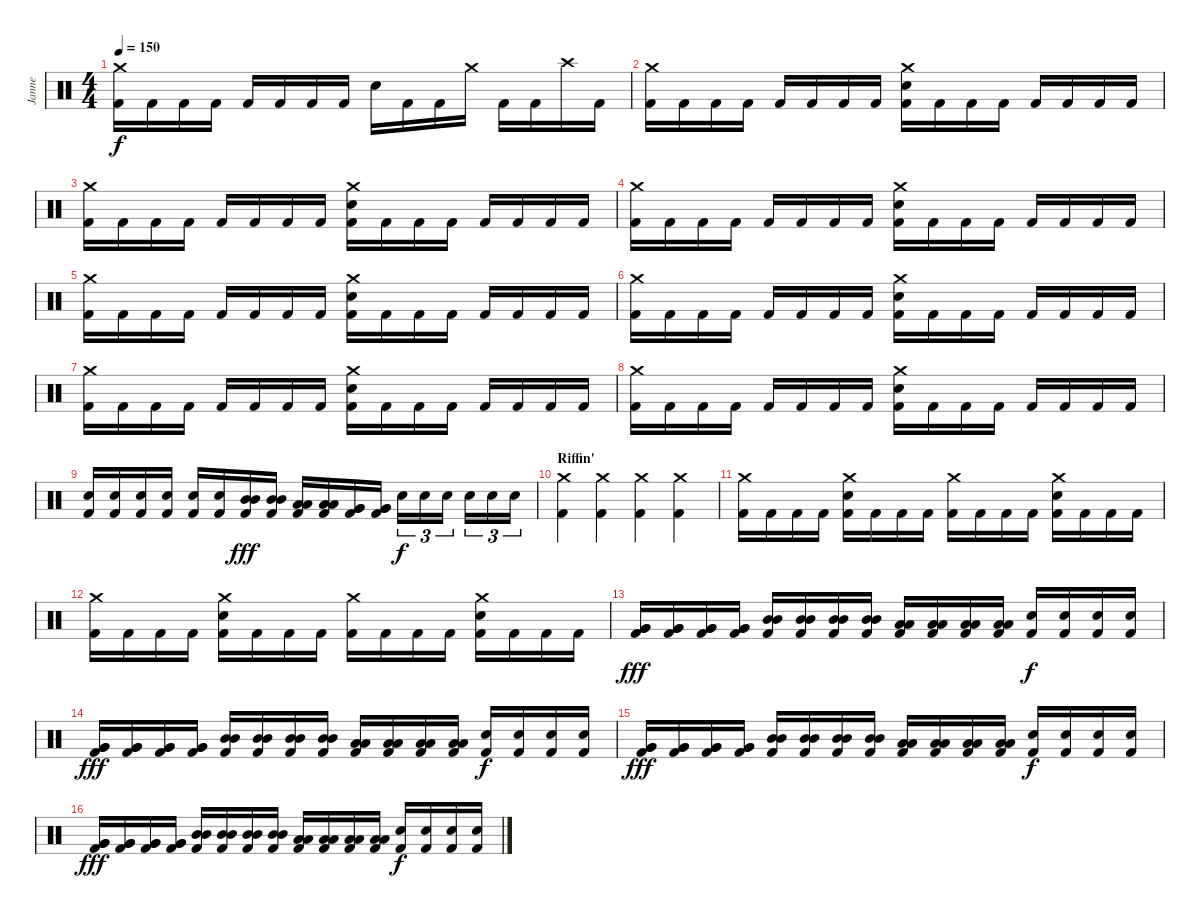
\track ("Janne" "Janne") {instrument percussion}
\staff {score}
\articulation defaults
\ts (4 4)
\tempo 150
\clef neutral
\ks c
("Crash medium (hit)" "Kick (hit) 2").16{dy f} "Kick (hit) 2".16 "Kick (hit) 2".16 "Kick (hit) 2".16 "Kick (hit) 2".16 "Kick (hit) 2".16 "Kick (hit) 2".16 "Kick (hit) 2".16 "Electric Snare (hit)".16 "Kick (hit) 2".16 "Kick (hit) 2".16 "Crash medium (hit)".16 "Kick (hit) 2".16 "Kick (hit) 2".16 "Crash high (hit)".16 "Kick (hit) 2".16 |
("Crash medium (hit)" "Kick (hit) 2").16 "Kick (hit) 2".16 "Kick (hit) 2".16 "Kick (hit) 2".16 "Kick (hit) 2".16 "Kick (hit) 2".16 "Kick (hit) 2".16 "Kick (hit) 2".16 ("Crash medium (hit)" "Electric Snare (hit)" "Kick (hit) 2").16 "Kick (hit) 2".16 "Kick (hit) 2".16 "Kick (hit) 2".16 "Kick (hit) 2".16 "Kick (hit) 2".16 "Kick (hit) 2".16 "Kick (hit) 2".16 |
("Crash medium (hit)" "Kick (hit) 2").16 "Kick (hit) 2".16 "Kick (hit) 2".16 "Kick (hit) 2".16 "Kick (hit) 2".16 "Kick (hit) 2".16 "Kick (hit) 2".16 "Kick (hit) 2".16 ("Crash medium (hit)" "Electric Snare (hit)" "Kick (hit) 2").16 "Kick (hit) 2".16 "Kick (hit) 2".16 "Kick (hit) 2".16 "Kick (hit) 2".16 "Kick (hit) 2".16 "Kick (hit) 2".16 "Kick (hit) 2".16 |
("Crash medium (hit)" "Kick (hit) 2").16 "Kick (hit) 2".16 "Kick (hit) 2".16 "Kick (hit) 2".16 "Kick (hit) 2".16 "Kick (hit) 2".16 "Kick (hit) 2".16 "Kick (hit) 2".16 ("Crash medium (hit)" "Electric Snare (hit)" "Kick (hit) 2").16 "Kick (hit) 2".16 "Kick (hit) 2".16 "Kick (hit) 2".16 "Kick (hit) 2".16 "Kick (hit) 2".16 "Kick (hit) 2".16 "Kick (hit) 2".16 |
("Crash medium (hit)" "Kick (hit) 2").16 "Kick (hit) 2".16 "Kick (hit) 2".16 "Kick (hit) 2".16 "Kick (hit) 2".16 "Kick (hit) 2".16 "Kick (hit) 2".16 "Kick (hit) 2".16 ("Crash medium (hit)" "Electric Snare (hit)" "Kick (hit) 2").16 "Kick (hit) 2".16 "Kick (hit) 2".16 "Kick (hit) 2".16 "Kick (hit) 2".16 "Kick (hit) 2".16 "Kick (hit) 2".16 "Kick (hit) 2".16 |
("Crash medium (hit)" "Kick (hit) 2").16 "Kick (hit) 2".16 "Kick (hit) 2".16 "Kick (hit) 2".16 "Kick (hit) 2".16 "Kick (hit) 2".16 "Kick (hit) 2".16 "Kick (hit) 2".16 ("Crash medium (hit)" "Electric Snare (hit)" "Kick (hit) 2").16 "Kick (hit) 2".16 "Kick (hit) 2".16 "Kick (hit) 2".16 "Kick (hit) 2".16 "Kick (hit) 2".16 "Kick (hit) 2".16 "Kick (hit) 2".16 |
("Crash medium (hit)" "Kick (hit) 2").16 "Kick (hit) 2".16 "Kick (hit) 2".16 "Kick (hit) 2".16 "Kick (hit) 2".16 "Kick (hit) 2".16 "Kick (hit) 2".16 "Kick (hit) 2".16 ("Crash medium (hit)" "Electric Snare (hit)" "Kick (hit) 2").16 "Kick (hit) 2".16 "Kick (hit) 2".16 "Kick (hit) 2".16 "Kick (hit) 2".16 "Kick (hit) 2".16 "Kick (hit) 2".16 "Kick (hit) 2".16 |
("Crash medium (hit)" "Kick (hit) 2").16 "Kick (hit) 2".16 "Kick (hit) 2".16 "Kick (hit) 2".16 "Kick (hit) 2".16 "Kick (hit) 2".16 "Kick (hit) 2".16 "Kick (hit) 2".16 ("Crash medium (hit)" "Electric Snare (hit)" "Kick (hit) 2").16 "Kick (hit) 2".16 "Kick (hit) 2".16 "Kick (hit) 2".16 "Kick (hit) 2".16 "Kick (hit) 2".16 "Kick (hit) 2".16 "Kick (hit) 2".16 |
("Electric Snare (hit)" "Kick (hit) 2").16 ("Electric Snare (hit)" "Kick (hit) 2").16 ("Electric Snare (hit)" "Kick (hit) 2").16 ("Electric Snare (hit)" "Kick (hit) 2").16 ("Electric Snare (hit)" "Kick (hit) 2").16 ("Electric Snare (hit)" "Kick (hit) 2").16 ("Mid Tom (hit)" "Mid Tom (hit)" "Kick (hit) 2").16{dy fff} ("Mid Tom (hit)" "Mid Tom (hit)" "Kick (hit) 2").16 ("Low Tom (hit)" "Low Tom (hit)" "Kick (hit) 2").16 ("Low Tom (hit)" "Low Tom (hit)" "Kick (hit) 2").16 ("Very Low Tom (hit)" "Very Low Tom (hit)" "Kick (hit) 2").16 ("Very Low Tom (hit)" "Very Low Tom (hit)" "Kick (hit) 2").16 "Electric Snare (hit)".16{tu (3 2) dy f} "Electric Snare (hit)".16{tu (3 2)} "Electric Snare (hit)".16{tu (3 2)} "Electric Snare (hit)".16{tu (3 2)} "Electric Snare (hit)".16{tu (3 2)} "Electric Snare (hit)".16{tu (3 2)} |
\section ("" "Riffin'")
("Crash medium (hit)" "Kick (hit) 2").4 ("Crash medium (hit)" "Kick (hit) 2").4 ("Crash medium (hit)" "Kick (hit) 2").4 ("Crash medium (hit)" "Kick (hit) 2").4 |
("Crash medium (hit)" "Kick (hit) 2").16 "Kick (hit) 2".16 "Kick (hit) 2".16 "Kick (hit) 2".16 ("Crash medium (hit)" "Electric Snare (hit)" "Kick (hit) 2").16 "Kick (hit) 2".16 "Kick (hit) 2".16 "Kick (hit) 2".16 ("Crash medium (hit)" "Kick (hit) 2").16 "Kick (hit) 2".16 "Kick (hit) 2".16 "Kick (hit) 2".16 ("Crash medium (hit)" "Electric Snare (hit)" "Kick (hit) 2").16 "Kick (hit) 2".16 "Kick (hit) 2".16 "Kick (hit) 2".16 |
("Crash medium (hit)" "Kick (hit) 2").16 "Kick (hit) 2".16 "Kick (hit) 2".16 "Kick (hit) 2".16 ("Crash medium (hit)" "Electric Snare (hit)" "Kick (hit) 2").16 "Kick (hit) 2".16 "Kick (hit) 2".16 "Kick (hit) 2".16 ("Crash medium (hit)" "Kick (hit) 2").16 "Kick (hit) 2".16 "Kick (hit) 2".16 "Kick (hit) 2".16 ("Crash medium (hit)" "Electric Snare (hit)" "Kick (hit) 2").16 "Kick (hit) 2".16 "Kick (hit) 2".16 "Kick (hit) 2".16 |
("Very Low Tom (hit)" "Very Low Tom (hit)" "Kick (hit) 2").16{dy fff} ("Very Low Tom (hit)" "Very Low Tom (hit)" "Kick (hit) 2").16 ("Very Low Tom (hit)" "Very Low Tom (hit)" "Kick (hit) 2").16 ("Very Low Tom (hit)" "Very Low Tom (hit)" "Kick (hit) 2").16 ("Mid Tom (hit)" "Mid Tom (hit)" "Kick (hit) 2").16 ("Mid Tom (hit)" "Mid Tom (hit)" "Kick (hit) 2").16 ("Mid Tom (hit)" "Mid Tom (hit)" "Kick (hit) 2").16 ("Mid Tom (hit)" "Mid Tom (hit)" "Kick (hit) 2").16 ("Low Tom (hit)" "Low Tom (hit)" "Kick (hit) 2").16 ("Low Tom (hit)" "Low Tom (hit)" "Kick (hit) 2").16 ("Low Tom (hit)" "Low Tom (hit)" "Kick (hit) 2").16 ("Low Tom (hit)" "Low Tom (hit)" "Kick (hit) 2").16 ("Electric Snare (hit)" "Kick (hit) 2").16{dy f} ("Electric Snare (hit)" "Kick (hit) 2").16 ("Electric Snare (hit)" "Kick (hit) 2").16 ("Electric Snare (hit)" "Kick (hit) 2").16 |
("Very Low Tom (hit)" "Very Low Tom (hit)" "Kick (hit) 2").16{dy fff} ("Very Low Tom (hit)" "Very Low Tom (hit)" "Kick (hit) 2").16 ("Very Low Tom (hit)" "Very Low Tom (hit)" "Kick (hit) 2").16 ("Very Low Tom (hit)" "Very Low Tom (hit)" "Kick (hit) 2").16 ("Mid Tom (hit)" "Mid Tom (hit)" "Kick (hit) 2").16 ("Mid Tom (hit)" "Mid Tom (hit)" "Kick (hit) 2").16 ("Mid Tom (hit)" "Mid Tom (hit)" "Kick (hit) 2").16 ("Mid Tom (hit)" "Mid Tom (hit)" "Kick (hit) 2").16 ("Low Tom (hit)" "Low Tom (hit)" "Kick (hit) 2").16 ("Low Tom (hit)" "Low Tom (hit)" "Kick (hit) 2").16 ("Low Tom (hit)" "Low Tom (hit)" "Kick (hit) 2").16 ("Low Tom (hit)" "Low Tom (hit)" "Kick (hit) 2").16 ("Electric Snare (hit)" "Kick (hit) 2").16{dy f} ("Electric Snare (hit)" "Kick (hit) 2").16 ("Electric Snare (hit)" "Kick (hit) 2").16 ("Electric Snare (hit)" "Kick (hit) 2").16 |
("Very Low Tom (hit)" "Very Low Tom (hit)" "Kick (hit) 2").16{dy fff} ("Very Low Tom (hit)" "Very Low Tom (hit)" "Kick (hit) 2").16 ("Very Low Tom (hit)" "Very Low Tom (hit)" "Kick (hit) 2").16 ("Very Low Tom (hit)" "Very Low Tom (hit)" "Kick (hit) 2").16 ("Mid Tom (hit)" "Mid Tom (hit)" "Kick (hit) 2").16 ("Mid Tom (hit)" "Mid Tom (hit)" "Kick (hit) 2").16 ("Mid Tom (hit)" "Mid Tom (hit)" "Kick (hit) 2").16 ("Mid Tom (hit)" "Mid Tom (hit)" "Kick (hit) 2").16 ("Low Tom (hit)" "Low Tom (hit)" "Kick (hit) 2").16 ("Low Tom (hit)" "Low Tom (hit)" "Kick (hit) 2").16 ("Low Tom (hit)" "Low Tom (hit)" "Kick (hit) 2").16 ("Low Tom (hit)" "Low Tom (hit)" "Kick (hit) 2").16 ("Electric Snare (hit)" "Kick (hit) 2").16{dy f} ("Electric Snare (hit)" "Kick (hit) 2").16 ("Electric Snare (hit)" "Kick (hit) 2").16 ("Electric Snare (hit)" "Kick (hit) 2").16 |
("Very Low Tom (hit)" "Very Low Tom (hit)" "Kick (hit) 2").16{dy fff} ("Very Low Tom (hit)" "Very Low Tom (hit)" "Kick (hit) 2").16 ("Very Low Tom (hit)" "Very Low Tom (hit)" "Kick (hit) 2").16 ("Very Low Tom (hit)" "Very Low Tom (hit)" "Kick (hit) 2").16 ("Mid Tom (hit)" "Mid Tom (hit)" "Kick (hit) 2").16 ("Mid Tom (hit)" "Mid Tom (hit)" "Kick (hit) 2").16 ("Mid Tom (hit)" "Mid Tom (hit)" "Kick (hit) 2").16 ("Mid Tom (hit)" "Mid Tom (hit)" "Kick (hit) 2").16 ("Low Tom (hit)" "Low Tom (hit)" "Kick (hit) 2").16 ("Low Tom (hit)" "Low Tom (hit)" "Kick (hit) 2").16 ("Low Tom (hit)" "Low Tom (hit)" "Kick (hit) 2").16 ("Low Tom (hit)" "Low Tom (hit)" "Kick (hit) 2").16 ("Electric Snare (hit)" "Kick (hit) 2").16{dy f} ("Electric Snare (hit)" "Kick (hit) 2").16 ("Electric Snare (hit)" "Kick (hit) 2").16 ("Electric Snare (hit)" "Kick (hit) 2").16
